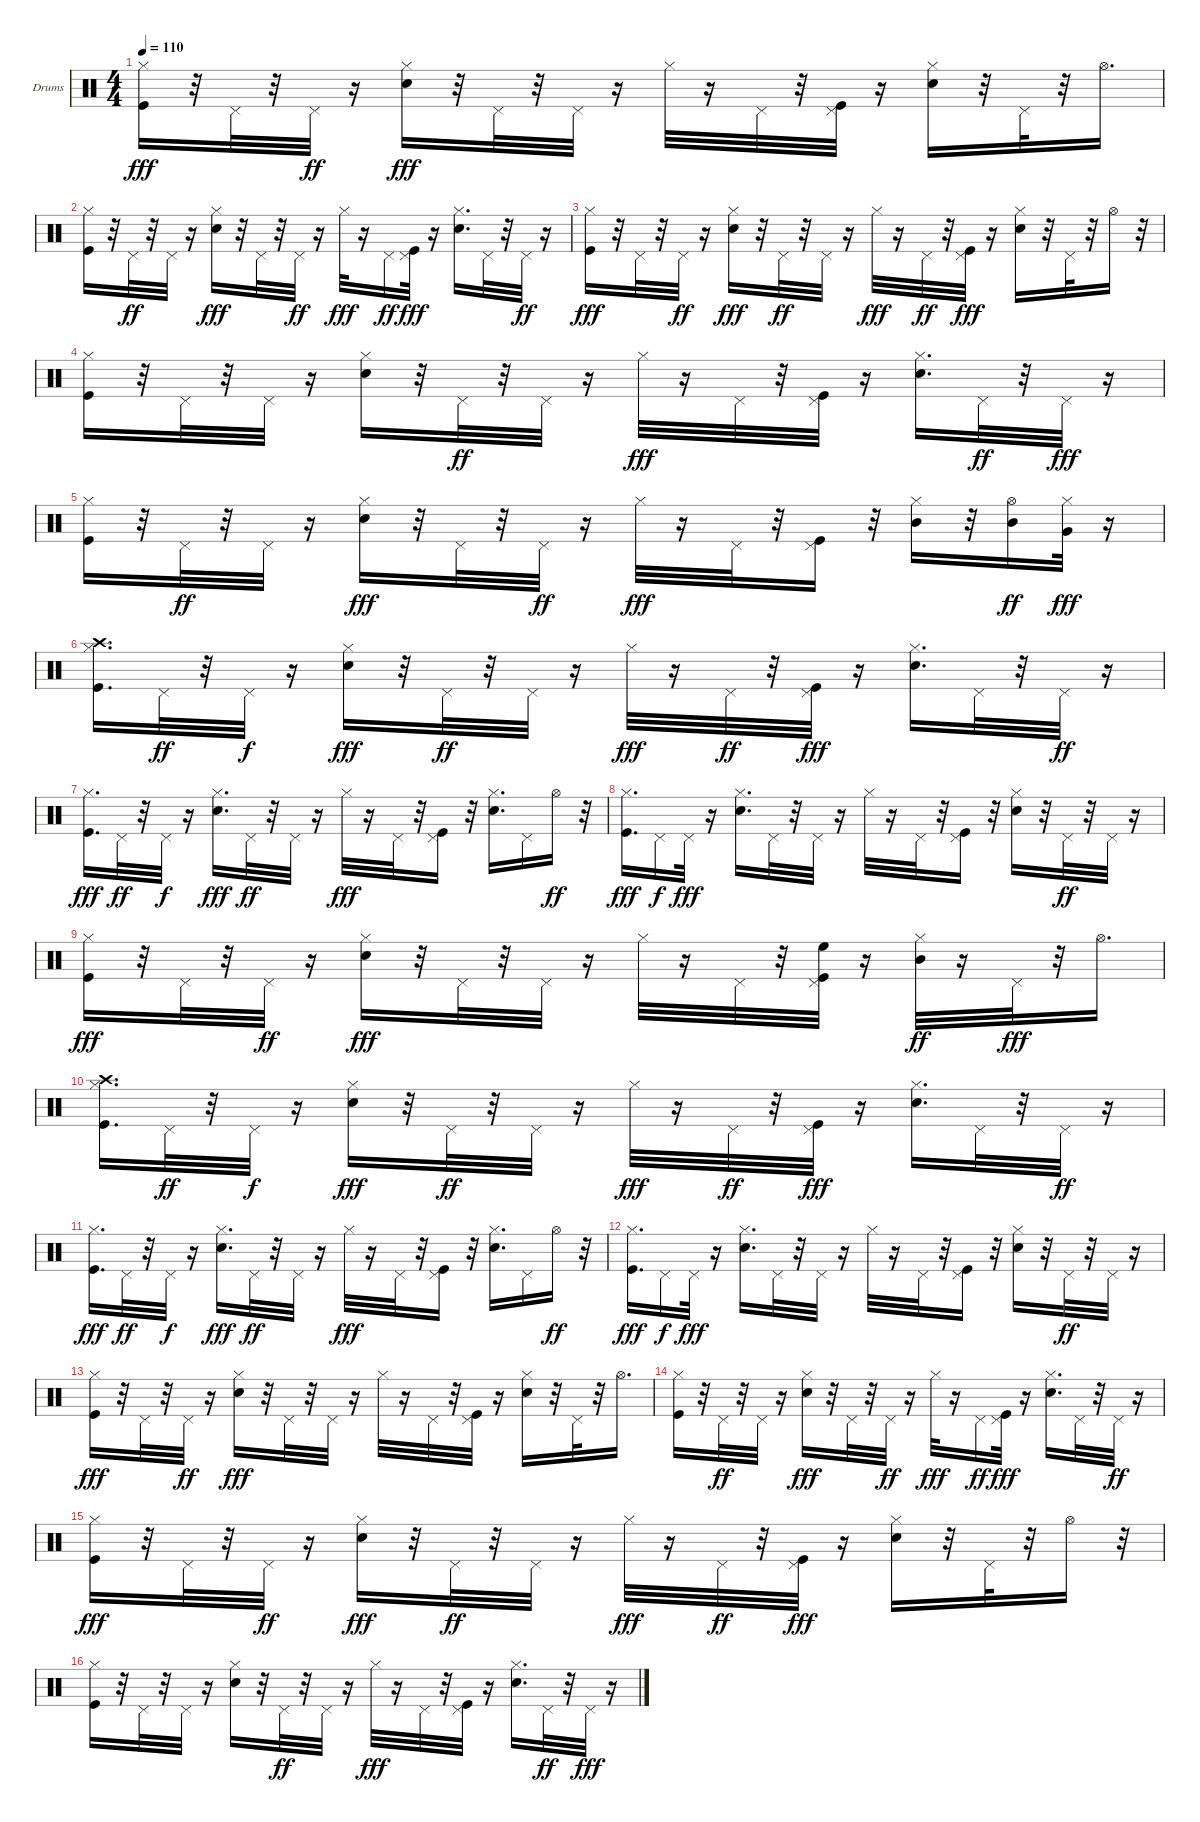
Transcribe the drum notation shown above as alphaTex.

\defaultSystemsLayout 4
\bracketExtendMode groupsimilarinstruments
\firstSystemTrackNameOrientation horizontal
\otherSystemsTrackNameOrientation horizontal
\track ("Drumkit" "Drums") {instrument percussion}
\staff {score}
\articulation defaults
\ts (4 4)
\tempo 110
\clef neutral
\ks c
("Kick (hit)" "Hi-Hat (closed)").16{dy fff} r.32 "Pedal Hi-Hat (hit)".32 r.32 "Pedal Hi-Hat (hit)".32{dy ff} r.16 ("Snare (hit) 2" "Hi-Hat (closed)").16{dy fff} r.32 "Pedal Hi-Hat (hit)".32 r.32 "Pedal Hi-Hat (hit)".32 r.16 "Hi-Hat (closed)".32 r.16 "Pedal Hi-Hat (hit)".32 r.32 ("Kick (hit)" "Pedal Hi-Hat (hit)").32 r.16 ("Snare (hit) 2" "Hi-Hat (closed)").16 r.32 "Pedal Hi-Hat (hit)".32 r.32 "Hi-Hat (open)".16{d} |
("Kick (hit)" "Hi-Hat (closed)").16 r.32 "Pedal Hi-Hat (hit)".32{dy ff} r.32 "Pedal Hi-Hat (hit)".32 r.16 ("Snare (hit) 2" "Hi-Hat (closed)").16{dy fff} r.32 "Pedal Hi-Hat (hit)".32 r.32 "Pedal Hi-Hat (hit)".32{dy ff} r.16 "Hi-Hat (closed)".32{dy fff} r.16 "Pedal Hi-Hat (hit)".16{dy ff} ("Kick (hit)" "Pedal Hi-Hat (hit)").32{dy fff} r.16 ("Snare (hit) 2" "Hi-Hat (closed)").16{d} "Pedal Hi-Hat (hit)".32 r.32 "Pedal Hi-Hat (hit)".32{dy ff} r.16 |
("Kick (hit)" "Hi-Hat (closed)").16{dy fff} r.32 "Pedal Hi-Hat (hit)".32 r.32 "Pedal Hi-Hat (hit)".32{dy ff} r.16 ("Snare (hit) 2" "Hi-Hat (closed)").16{dy fff} r.32 "Pedal Hi-Hat (hit)".32{dy ff} r.32 "Pedal Hi-Hat (hit)".32 r.16 "Hi-Hat (closed)".32{dy fff} r.16 "Pedal Hi-Hat (hit)".32{dy ff} r.32 ("Kick (hit)" "Pedal Hi-Hat (hit)").32{dy fff} r.16 ("Snare (hit) 2" "Hi-Hat (closed)").16 r.32 "Pedal Hi-Hat (hit)".32 r.32 "Hi-Hat (open)".16 r.32 |
("Kick (hit)" "Hi-Hat (closed)").16 r.32 "Pedal Hi-Hat (hit)".32 r.32 "Pedal Hi-Hat (hit)".32 r.16 ("Snare (hit) 2" "Hi-Hat (closed)").16 r.32 "Pedal Hi-Hat (hit)".32{dy ff} r.32 "Pedal Hi-Hat (hit)".32 r.16 "Hi-Hat (closed)".32{dy fff} r.16 "Pedal Hi-Hat (hit)".32 r.32 ("Kick (hit)" "Pedal Hi-Hat (hit)").32 r.16 ("Snare (hit) 2" "Hi-Hat (closed)").16{d} "Pedal Hi-Hat (hit)".32{dy ff} r.32 "Pedal Hi-Hat (hit)".32{dy fff} r.16 |
("Kick (hit)" "Hi-Hat (closed)").16 r.32 "Pedal Hi-Hat (hit)".32{dy ff} r.32 "Pedal Hi-Hat (hit)".32 r.16 ("Snare (hit) 2" "Hi-Hat (closed)").16{dy fff} r.32 "Pedal Hi-Hat (hit)".32 r.32 "Pedal Hi-Hat (hit)".32{dy ff} r.16 "Hi-Hat (closed)".32{dy fff} r.16 "Pedal Hi-Hat (hit)".32 r.32 ("Kick (hit)" "Pedal Hi-Hat (hit)").16 r.32 ("Mid Tom (hit)" "Hi-Hat (closed)").16 r.32 ("Mid Tom (hit)" "Hi-Hat (open)").16{dy ff} ("Very Low Tom (hit)" "Hi-Hat (closed)").32{dy fff} r.16 |
("Kick (hit)" "Crash high (hit)" "Hi-Hat (closed)").16{d} "Pedal Hi-Hat (hit)".32{dy ff} r.32 "Pedal Hi-Hat (hit)".32{dy f} r.16 ("Snare (hit) 2" "Hi-Hat (closed)").16{dy fff} r.32 "Pedal Hi-Hat (hit)".32{dy ff} r.32 "Pedal Hi-Hat (hit)".32 r.16 "Hi-Hat (closed)".32{dy fff} r.16 "Pedal Hi-Hat (hit)".32{dy ff} r.32 ("Kick (hit)" "Pedal Hi-Hat (hit)").32{dy fff} r.16 ("Snare (hit) 2" "Hi-Hat (closed)").16{d} "Pedal Hi-Hat (hit)".32 r.32 "Pedal Hi-Hat (hit)".32{dy ff} r.16 |
("Kick (hit)" "Hi-Hat (closed)").16{d dy fff} "Pedal Hi-Hat (hit)".32{dy ff} r.32 "Pedal Hi-Hat (hit)".32{dy f} r.16 ("Snare (hit) 2" "Hi-Hat (closed)").16{d dy fff} "Pedal Hi-Hat (hit)".32{dy ff} r.32 "Pedal Hi-Hat (hit)".32 r.16 "Hi-Hat (closed)".32{dy fff} r.16 "Pedal Hi-Hat (hit)".32 r.32 ("Kick (hit)" "Pedal Hi-Hat (hit)").16 r.32 ("Snare (hit) 2" "Hi-Hat (closed)").16{d} "Pedal Hi-Hat (hit)".16 "Hi-Hat (open)".16{dy ff} r.32 |
("Kick (hit)" "Hi-Hat (closed)").16{d dy fff} "Pedal Hi-Hat (hit)".16{dy f} "Pedal Hi-Hat (hit)".32{dy fff} r.16 ("Snare (hit) 2" "Hi-Hat (closed)").16{d} "Pedal Hi-Hat (hit)".32 r.32 "Pedal Hi-Hat (hit)".32 r.16 "Hi-Hat (closed)".32 r.16 "Pedal Hi-Hat (hit)".32 r.32 ("Kick (hit)" "Pedal Hi-Hat (hit)").16 r.32 ("Snare (hit) 2" "Hi-Hat (closed)").16 r.32 "Pedal Hi-Hat (hit)".32{dy ff} r.32 "Pedal Hi-Hat (hit)".32 r.16 |
("Kick (hit)" "Hi-Hat (closed)").16{dy fff} r.32 "Pedal Hi-Hat (hit)".32 r.32 "Pedal Hi-Hat (hit)".32{dy ff} r.16 ("Snare (hit) 2" "Hi-Hat (closed)").16{dy fff} r.32 "Pedal Hi-Hat (hit)".32 r.32 "Pedal Hi-Hat (hit)".32 r.16 "Hi-Hat (closed)".32 r.16 "Pedal Hi-Hat (hit)".32 r.32 ("Kick (hit)" "Pedal Hi-Hat (hit)" "High Floor Tom (hit)").32 r.16 ("Mid Tom (hit)" "Hi-Hat (closed)").32{dy ff} r.16 "Pedal Hi-Hat (hit)".32{dy fff} r.32 "Hi-Hat (open)".16{d} |
("Kick (hit)" "Crash high (hit)" "Hi-Hat (closed)").16{d} "Pedal Hi-Hat (hit)".32{dy ff} r.32 "Pedal Hi-Hat (hit)".32{dy f} r.16 ("Snare (hit) 2" "Hi-Hat (closed)").16{dy fff} r.32 "Pedal Hi-Hat (hit)".32{dy ff} r.32 "Pedal Hi-Hat (hit)".32 r.16 "Hi-Hat (closed)".32{dy fff} r.16 "Pedal Hi-Hat (hit)".32{dy ff} r.32 ("Kick (hit)" "Pedal Hi-Hat (hit)").32{dy fff} r.16 ("Snare (hit) 2" "Hi-Hat (closed)").16{d} "Pedal Hi-Hat (hit)".32 r.32 "Pedal Hi-Hat (hit)".32{dy ff} r.16 |
("Kick (hit)" "Hi-Hat (closed)").16{d dy fff} "Pedal Hi-Hat (hit)".32{dy ff} r.32 "Pedal Hi-Hat (hit)".32{dy f} r.16 ("Snare (hit) 2" "Hi-Hat (closed)").16{d dy fff} "Pedal Hi-Hat (hit)".32{dy ff} r.32 "Pedal Hi-Hat (hit)".32 r.16 "Hi-Hat (closed)".32{dy fff} r.16 "Pedal Hi-Hat (hit)".32 r.32 ("Kick (hit)" "Pedal Hi-Hat (hit)").16 r.32 ("Snare (hit) 2" "Hi-Hat (closed)").16{d} "Pedal Hi-Hat (hit)".16 "Hi-Hat (open)".16{dy ff} r.32 |
("Kick (hit)" "Hi-Hat (closed)").16{d dy fff} "Pedal Hi-Hat (hit)".16{dy f} "Pedal Hi-Hat (hit)".32{dy fff} r.16 ("Snare (hit) 2" "Hi-Hat (closed)").16{d} "Pedal Hi-Hat (hit)".32 r.32 "Pedal Hi-Hat (hit)".32 r.16 "Hi-Hat (closed)".32 r.16 "Pedal Hi-Hat (hit)".32 r.32 ("Kick (hit)" "Pedal Hi-Hat (hit)").16 r.32 ("Snare (hit) 2" "Hi-Hat (closed)").16 r.32 "Pedal Hi-Hat (hit)".32{dy ff} r.32 "Pedal Hi-Hat (hit)".32 r.16 |
("Kick (hit)" "Hi-Hat (closed)").16{dy fff} r.32 "Pedal Hi-Hat (hit)".32 r.32 "Pedal Hi-Hat (hit)".32{dy ff} r.16 ("Snare (hit) 2" "Hi-Hat (closed)").16{dy fff} r.32 "Pedal Hi-Hat (hit)".32 r.32 "Pedal Hi-Hat (hit)".32 r.16 "Hi-Hat (closed)".32 r.16 "Pedal Hi-Hat (hit)".32 r.32 ("Kick (hit)" "Pedal Hi-Hat (hit)").32 r.16 ("Snare (hit) 2" "Hi-Hat (closed)").16 r.32 "Pedal Hi-Hat (hit)".32 r.32 "Hi-Hat (open)".16{d} |
("Kick (hit)" "Hi-Hat (closed)").16 r.32 "Pedal Hi-Hat (hit)".32{dy ff} r.32 "Pedal Hi-Hat (hit)".32 r.16 ("Snare (hit) 2" "Hi-Hat (closed)").16{dy fff} r.32 "Pedal Hi-Hat (hit)".32 r.32 "Pedal Hi-Hat (hit)".32{dy ff} r.16 "Hi-Hat (closed)".32{dy fff} r.16 "Pedal Hi-Hat (hit)".16{dy ff} ("Kick (hit)" "Pedal Hi-Hat (hit)").32{dy fff} r.16 ("Snare (hit) 2" "Hi-Hat (closed)").16{d} "Pedal Hi-Hat (hit)".32 r.32 "Pedal Hi-Hat (hit)".32{dy ff} r.16 |
("Kick (hit)" "Hi-Hat (closed)").16{dy fff} r.32 "Pedal Hi-Hat (hit)".32 r.32 "Pedal Hi-Hat (hit)".32{dy ff} r.16 ("Snare (hit) 2" "Hi-Hat (closed)").16{dy fff} r.32 "Pedal Hi-Hat (hit)".32{dy ff} r.32 "Pedal Hi-Hat (hit)".32 r.16 "Hi-Hat (closed)".32{dy fff} r.16 "Pedal Hi-Hat (hit)".32{dy ff} r.32 ("Kick (hit)" "Pedal Hi-Hat (hit)").32{dy fff} r.16 ("Snare (hit) 2" "Hi-Hat (closed)").16 r.32 "Pedal Hi-Hat (hit)".32 r.32 "Hi-Hat (open)".16 r.32 |
("Kick (hit)" "Hi-Hat (closed)").16 r.32 "Pedal Hi-Hat (hit)".32 r.32 "Pedal Hi-Hat (hit)".32 r.16 ("Snare (hit) 2" "Hi-Hat (closed)").16 r.32 "Pedal Hi-Hat (hit)".32{dy ff} r.32 "Pedal Hi-Hat (hit)".32 r.16 "Hi-Hat (closed)".32{dy fff} r.16 "Pedal Hi-Hat (hit)".32 r.32 ("Kick (hit)" "Pedal Hi-Hat (hit)").32 r.16 ("Snare (hit) 2" "Hi-Hat (closed)").16{d} "Pedal Hi-Hat (hit)".32{dy ff} r.32 "Pedal Hi-Hat (hit)".32{dy fff} r.16
